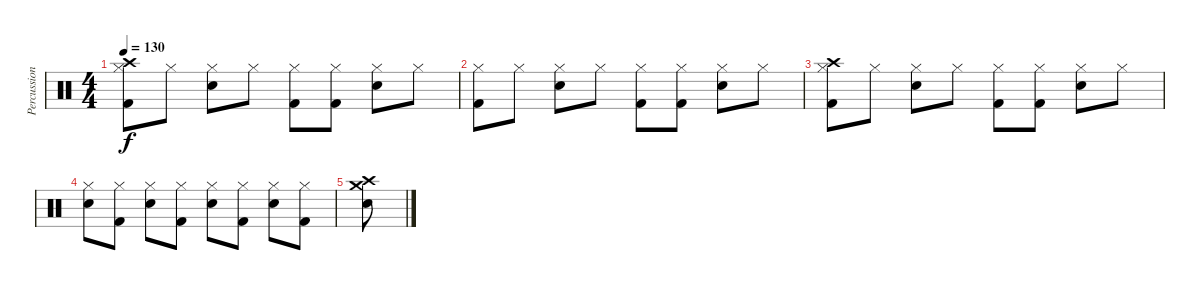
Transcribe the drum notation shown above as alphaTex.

\track ("Percussion" "Percussion") {instrument percussion}
\staff {score}
\articulation defaults
\ts (4 4)
\tempo 130
\clef neutral
\ks c
("Kick (hit) 2" "Hi-Hat (closed)" "Crash high (hit)").8{dy f} "Hi-Hat (closed)".8 ("Hi-Hat (closed)" "Electric Snare (hit)").8 "Hi-Hat (closed)".8 ("Hi-Hat (closed)" "Kick (hit) 2").8 ("Hi-Hat (closed)" "Kick (hit) 2").8 ("Hi-Hat (closed)" "Electric Snare (hit)").8 "Hi-Hat (closed)".8 |
("Kick (hit) 2" "Hi-Hat (closed)").8 "Hi-Hat (closed)".8 ("Hi-Hat (closed)" "Electric Snare (hit)").8 "Hi-Hat (closed)".8 ("Hi-Hat (closed)" "Kick (hit) 2").8 ("Hi-Hat (closed)" "Kick (hit) 2").8 ("Hi-Hat (closed)" "Electric Snare (hit)").8 "Hi-Hat (closed)".8 |
("Kick (hit) 2" "Hi-Hat (closed)" "Crash high (hit)").8 "Hi-Hat (closed)".8 ("Hi-Hat (closed)" "Electric Snare (hit)").8 "Hi-Hat (closed)".8 ("Hi-Hat (closed)" "Kick (hit) 2").8 ("Hi-Hat (closed)" "Kick (hit) 2").8 ("Hi-Hat (closed)" "Electric Snare (hit)").8 "Hi-Hat (closed)".8 |
("Electric Snare (hit)" "Hi-Hat (closed)").8 ("Hi-Hat (closed)" "Kick (hit) 2").8 ("Hi-Hat (closed)" "Electric Snare (hit)").8 ("Hi-Hat (closed)" "Kick (hit) 2").8 ("Hi-Hat (closed)" "Electric Snare (hit)").8 ("Hi-Hat (closed)" "Kick (hit) 2").8 ("Hi-Hat (closed)" "Electric Snare (hit)").8 ("Hi-Hat (closed)" "Kick (hit) 2").8 |
("Crash medium (hit)" "Electric Snare (hit)" "Crash high (hit)").8
